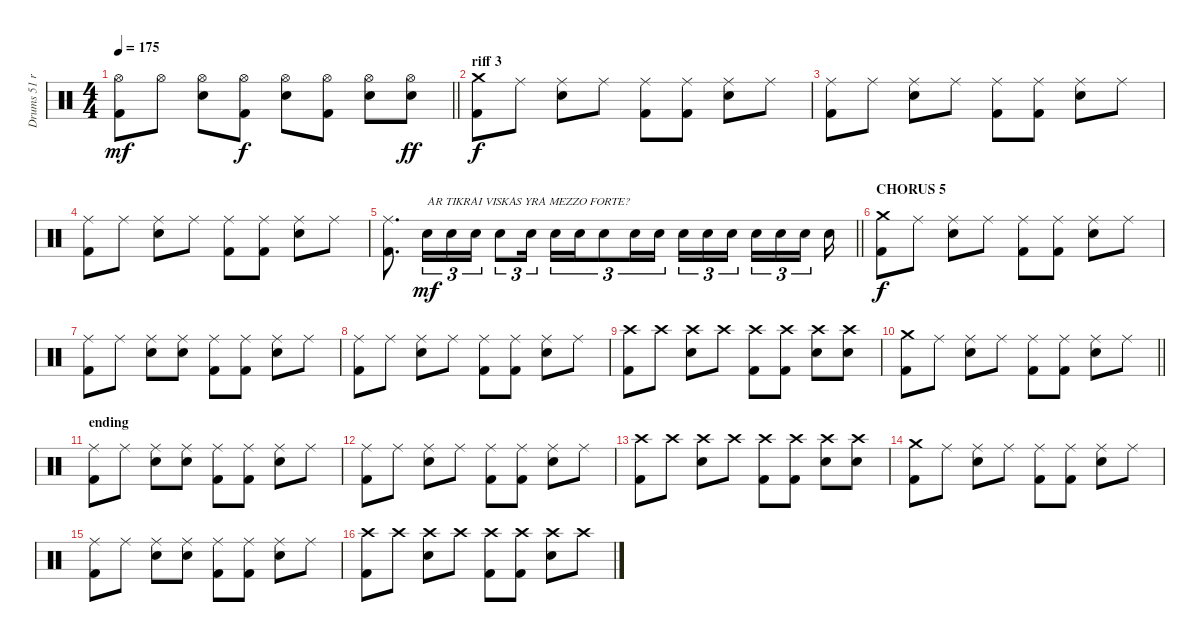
\track ("Drums 51 ride" "Drums 51 r") {instrument percussion}
\staff {score}
\articulation defaults
\ts (4 4)
\tempo 175
\clef neutral
\barLineRight lightlight
\ks c
("Hi-Hat (open)" "Kick (hit) 2").8{dy mf} "Hi-Hat (open)".8 ("Hi-Hat (open)" "Snare (hit) 2").8 ("Hi-Hat (open)" "Kick (hit) 2").8{dy f} ("Hi-Hat (open)" "Snare (hit) 2").8 ("Hi-Hat (open)" "Kick (hit) 2").8 ("Hi-Hat (open)" "Snare (hit) 2").8 ("Hi-Hat (open)" "Snare (hit) 2").8{dy ff} |
\section ("" "riff 3")
("Crash medium (hit)" "Kick (hit) 2").8{dy f} "Ride (middle)".8 ("Ride (middle)" "Snare (hit) 2").8 "Ride (middle)".8 ("Ride (middle)" "Kick (hit) 2").8 ("Ride (middle)" "Kick (hit) 2").8 ("Ride (middle)" "Snare (hit) 2").8 "Ride (middle)".8 |
("Ride (middle)" "Kick (hit) 2").8 "Ride (middle)".8 ("Ride (middle)" "Snare (hit) 2").8 "Ride (middle)".8 ("Ride (middle)" "Kick (hit) 2").8 ("Ride (middle)" "Kick (hit) 2").8 ("Ride (middle)" "Snare (hit) 2").8 "Ride (middle)".8 |
("Ride (middle)" "Kick (hit) 2").8 "Ride (middle)".8 ("Ride (middle)" "Snare (hit) 2").8 "Ride (middle)".8 ("Ride (middle)" "Kick (hit) 2").8 ("Ride (middle)" "Kick (hit) 2").8 ("Ride (middle)" "Snare (hit) 2").8 "Ride (middle)".8 |
\barLineRight lightlight
("Ride (middle)" "Kick (hit) 2").8{d} "Snare (hit) 2".16{tu (3 2) txt "AR TIKRAI VISKAS YRA MEZZO FORTE?" dy mf} "Snare (hit) 2".16{tu (3 2)} "Snare (hit) 2".16{tu (3 2)} "Snare (hit) 2".8{tu (3 2)} "Snare (hit) 2".16{tu (3 2) beam splitsecondary} "Snare (hit) 2".16{tu (3 2)} "Snare (hit) 2".16{tu (3 2)} "Snare (hit) 2".8{tu (3 2)} "Snare (hit) 2".16{tu (3 2)} "Snare (hit) 2".16{tu (3 2) beam splitsecondary} "Snare (hit) 2".16{tu (3 2)} "Snare (hit) 2".16{tu (3 2)} "Snare (hit) 2".16{tu (3 2) beam splitsecondary} "Snare (hit) 2".16{tu (3 2)} "Snare (hit) 2".16{tu (3 2)} "Snare (hit) 2".16{tu (3 2) beam splitsecondary} "Snare (hit) 2".16 |
\section ("" "CHORUS 5")
("Crash medium (hit)" "Kick (hit) 2").8{dy f} "Ride (middle)".8 ("Ride (middle)" "Snare (hit) 2").8 "Ride (middle)".8 ("Ride (middle)" "Kick (hit) 2").8 ("Ride (middle)" "Kick (hit) 2").8 ("Ride (middle)" "Snare (hit) 2").8 "Ride (middle)".8 |
("Ride (middle)" "Kick (hit) 2").8 "Ride (middle)".8 ("Ride (middle)" "Snare (hit) 2").8 ("Ride (middle)" "Snare (hit) 2").8 ("Ride (middle)" "Kick (hit) 2").8 ("Ride (middle)" "Kick (hit) 2").8 ("Ride (middle)" "Snare (hit) 2").8 "Ride (middle)".8 |
("Ride (middle)" "Kick (hit) 2").8 "Ride (middle)".8 ("Ride (middle)" "Snare (hit) 2").8 "Ride (middle)".8 ("Ride (middle)" "Kick (hit) 2").8 ("Ride (middle)" "Kick (hit) 2").8 ("Ride (middle)" "Snare (hit) 2").8 "Ride (middle)".8 |
("Crash high (hit)" "Kick (hit) 2").8 "Crash high (hit)".8 ("Crash high (hit)" "Snare (hit) 2").8 "Crash high (hit)".8 ("Crash high (hit)" "Kick (hit) 2").8 ("Crash high (hit)" "Kick (hit) 2").8 ("Crash high (hit)" "Snare (hit) 2").8 ("Crash high (hit)" "Snare (hit) 2").8 |
\barLineRight lightlight
("Crash medium (hit)" "Kick (hit) 2").8 "Ride (middle)".8 ("Ride (middle)" "Snare (hit) 2").8 "Ride (middle)".8 ("Ride (middle)" "Kick (hit) 2").8 ("Ride (middle)" "Kick (hit) 2").8 ("Ride (middle)" "Snare (hit) 2").8 "Ride (middle)".8 |
\section ("" "ending")
("Ride (middle)" "Kick (hit) 2").8 "Ride (middle)".8 ("Ride (middle)" "Snare (hit) 2").8 ("Ride (middle)" "Snare (hit) 2").8 ("Ride (middle)" "Kick (hit) 2").8 ("Ride (middle)" "Kick (hit) 2").8 ("Ride (middle)" "Snare (hit) 2").8 "Ride (middle)".8 |
("Ride (middle)" "Kick (hit) 2").8 "Ride (middle)".8 ("Ride (middle)" "Snare (hit) 2").8 "Ride (middle)".8 ("Ride (middle)" "Kick (hit) 2").8 ("Ride (middle)" "Kick (hit) 2").8 ("Ride (middle)" "Snare (hit) 2").8 "Ride (middle)".8 |
("Crash high (hit)" "Kick (hit) 2").8 "Crash high (hit)".8 ("Crash high (hit)" "Snare (hit) 2").8 "Crash high (hit)".8 ("Crash high (hit)" "Kick (hit) 2").8 ("Crash high (hit)" "Kick (hit) 2").8 ("Crash high (hit)" "Snare (hit) 2").8 ("Crash high (hit)" "Snare (hit) 2").8 |
("Crash medium (hit)" "Kick (hit) 2").8 "Ride (middle)".8 ("Ride (middle)" "Snare (hit) 2").8 "Ride (middle)".8 ("Ride (middle)" "Kick (hit) 2").8 ("Ride (middle)" "Kick (hit) 2").8 ("Ride (middle)" "Snare (hit) 2").8 "Ride (middle)".8 |
("Ride (middle)" "Kick (hit) 2").8 "Ride (middle)".8 ("Ride (middle)" "Snare (hit) 2").8 ("Ride (middle)" "Snare (hit) 2").8 ("Ride (middle)" "Kick (hit) 2").8 ("Ride (middle)" "Kick (hit) 2").8 ("Ride (middle)" "Snare (hit) 2").8 "Ride (middle)".8 |
("Crash high (hit)" "Kick (hit) 2").8 "Crash high (hit)".8 ("Crash high (hit)" "Snare (hit) 2").8 "Crash high (hit)".8 ("Crash high (hit)" "Kick (hit) 2").8 ("Crash high (hit)" "Kick (hit) 2").8 ("Crash high (hit)" "Snare (hit) 2").8 "Crash high (hit)".8
